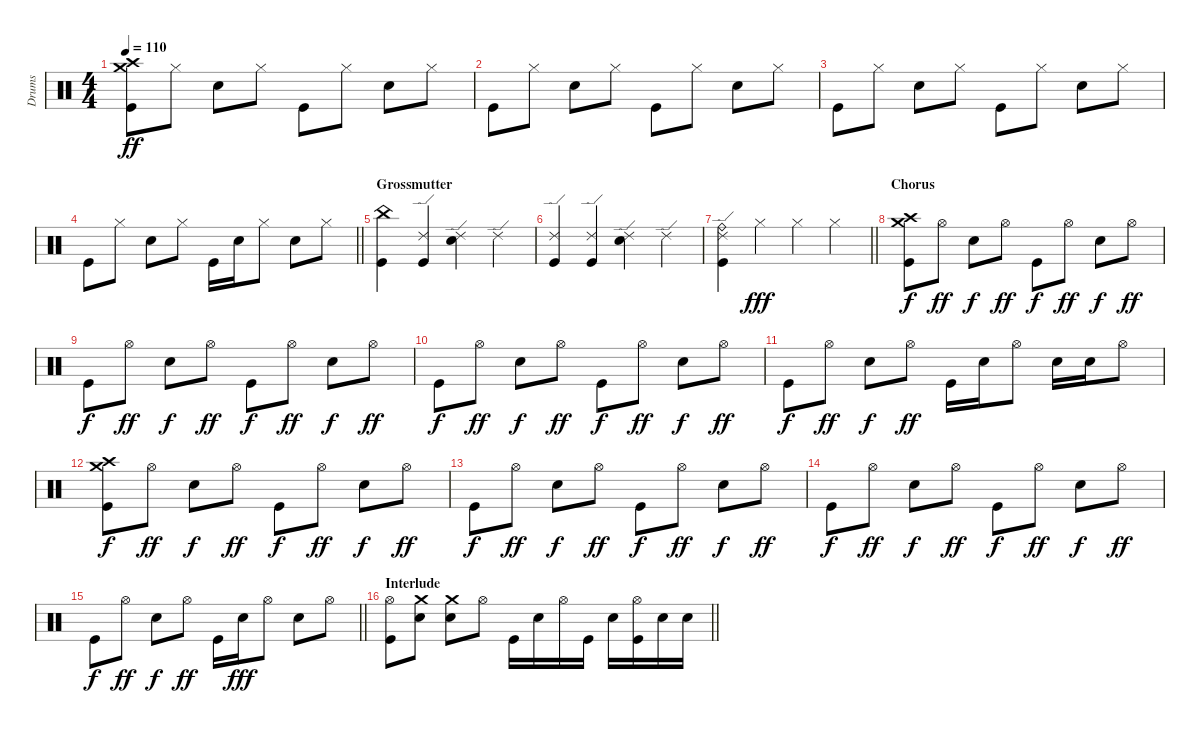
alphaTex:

\track ("Drums" "Drums") {instrument percussion}
\staff {score}
\articulation defaults
\ts (4 4)
\tempo 110
\clef neutral
\ks c
("Crash high (hit)" "Crash medium (hit)" "Kick (hit)").8{dy ff} "Hi-Hat (closed)".8 "Snare (hit) 2".8 "Hi-Hat (closed)".8 "Kick (hit)".8 "Hi-Hat (closed)".8 "Snare (hit) 2".8 "Hi-Hat (closed)".8 |
"Kick (hit)".8 "Hi-Hat (closed)".8 "Snare (hit) 2".8 "Hi-Hat (closed)".8 "Kick (hit)".8 "Hi-Hat (closed)".8 "Snare (hit) 2".8 "Hi-Hat (closed)".8 |
"Kick (hit)".8 "Hi-Hat (closed)".8 "Snare (hit) 2".8 "Hi-Hat (closed)".8 "Kick (hit)".8 "Hi-Hat (closed)".8 "Snare (hit) 2".8 "Hi-Hat (closed)".8 |
\barLineRight lightlight "Kick (hit)".8 "Hi-Hat (closed)".8 "Snare (hit) 2".8 "Hi-Hat (closed)".8 "Kick (hit)".16 "Snare (hit) 2".16 "Hi-Hat (closed)".8 "Snare (hit) 2".8 "Hi-Hat (closed)".8
|
\section ("" "Grossmutter")
("China (hit)" "Kick (hit)").4 ("Ride (edge) 2" "Kick (hit)").4 ("Ride (edge) 2" "Snare (hit) 2").4 "Ride (edge) 2".4 |
("Ride (edge) 2" "Kick (hit)").4 ("Ride (edge) 2" "Kick (hit)").4 ("Ride (edge) 2" "Snare (hit) 2").4 "Ride (edge) 2".4 |
\barLineRight lightlight
("Ride (edge) 2" "Ride (bell)" "Kick (hit)").4 "Hi-Hat (closed)".4{dy fff} "Hi-Hat (closed)".4 "Hi-Hat (closed)".4 |
\section ("" "Chorus")
("Crash high (hit)" "Crash medium (hit)" "Kick (hit)").8{dy f} "Hi-Hat (open)".8{dy ff} "Snare (hit) 2".8{dy f} "Hi-Hat (open)".8{dy ff} "Kick (hit)".8{dy f} "Hi-Hat (open)".8{dy ff} "Snare (hit) 2".8{dy f} "Hi-Hat (open)".8{dy ff} |
"Kick (hit)".8{dy f} "Hi-Hat (open)".8{dy ff} "Snare (hit) 2".8{dy f} "Hi-Hat (open)".8{dy ff} "Kick (hit)".8{dy f} "Hi-Hat (open)".8{dy ff} "Snare (hit) 2".8{dy f} "Hi-Hat (open)".8{dy ff} |
"Kick (hit)".8{dy f} "Hi-Hat (open)".8{dy ff} "Snare (hit) 2".8{dy f} "Hi-Hat (open)".8{dy ff} "Kick (hit)".8{dy f} "Hi-Hat (open)".8{dy ff} "Snare (hit) 2".8{dy f} "Hi-Hat (open)".8{dy ff} |
"Kick (hit)".8{dy f} "Hi-Hat (open)".8{dy ff} "Snare (hit) 2".8{dy f} "Hi-Hat (open)".8{dy ff} "Kick (hit)".16 "Snare (hit) 2".16 "Hi-Hat (open)".8 "Snare (hit) 2".16 "Snare (hit) 2".16 "Hi-Hat (open)".8 |
("Crash high (hit)" "Crash medium (hit)" "Kick (hit)").8{dy f} "Hi-Hat (open)".8{dy ff} "Snare (hit) 2".8{dy f} "Hi-Hat (open)".8{dy ff} "Kick (hit)".8{dy f} "Hi-Hat (open)".8{dy ff} "Snare (hit) 2".8{dy f} "Hi-Hat (open)".8{dy ff} |
"Kick (hit)".8{dy f} "Hi-Hat (open)".8{dy ff} "Snare (hit) 2".8{dy f} "Hi-Hat (open)".8{dy ff} "Kick (hit)".8{dy f} "Hi-Hat (open)".8{dy ff} "Snare (hit) 2".8{dy f} "Hi-Hat (open)".8{dy ff} |
"Kick (hit)".8{dy f} "Hi-Hat (open)".8{dy ff} "Snare (hit) 2".8{dy f} "Hi-Hat (open)".8{dy ff} "Kick (hit)".8{dy f} "Hi-Hat (open)".8{dy ff} "Snare (hit) 2".8{dy f} "Hi-Hat (open)".8{dy ff} |
\barLineRight lightlight "Kick (hit)".8{dy f} "Hi-Hat (open)".8{dy ff} "Snare (hit) 2".8{dy f} "Hi-Hat (open)".8{dy ff} "Kick (hit)".16 "Snare (hit) 2".16{dy fff} "Hi-Hat (open)".8 "Snare (hit) 2".8 "Hi-Hat (open)".8
|
\section ("" "Interlude")
\barLineRight lightlight
("Hi-Hat (open)" "Kick (hit)").8 ("Crash medium (hit)" "Snare (hit) 2").8 ("Crash medium (hit)" "Snare (hit) 2").8 "Hi-Hat (open)".8 "Kick (hit)".16 "Snare (hit) 2".16 "Hi-Hat (open)".16 "Kick (hit)".16 "Snare (hit) 2".16 ("Hi-Hat (open)" "Kick (hit)").16 "Snare (hit) 2".16 "Snare (hit) 2".16
